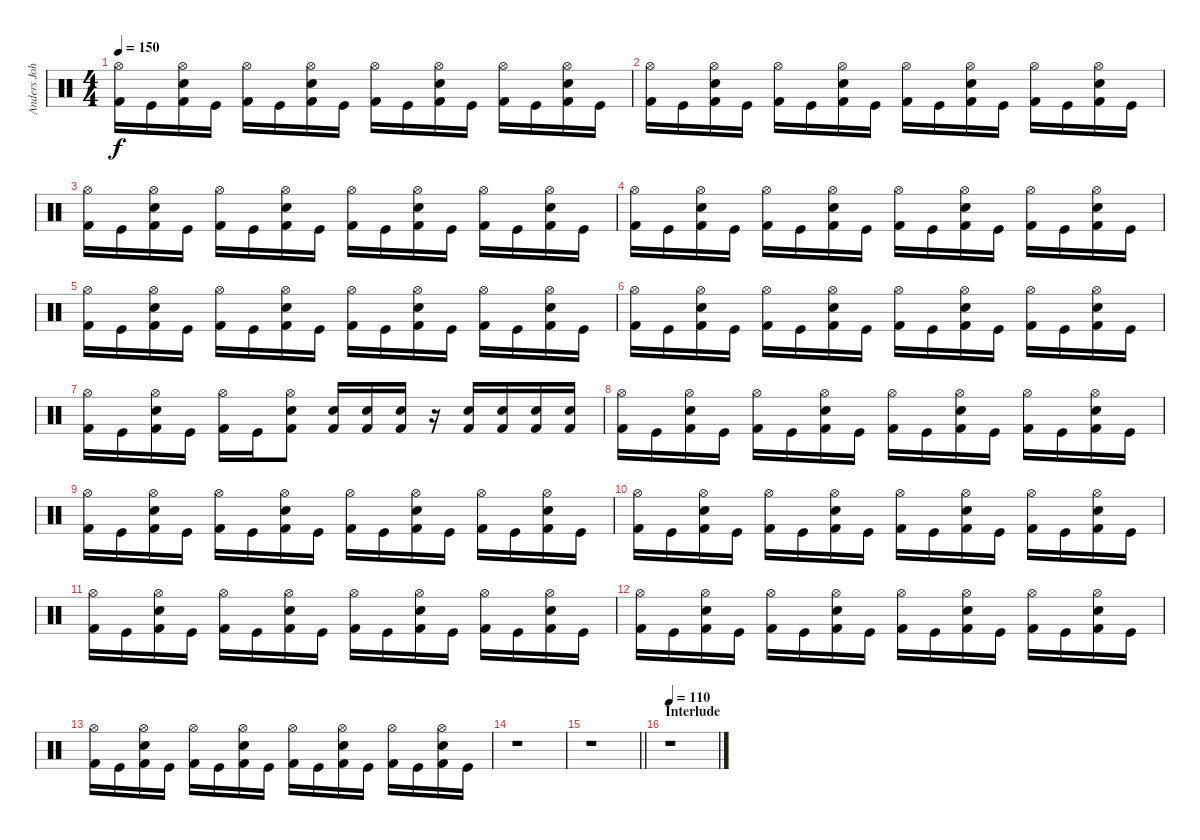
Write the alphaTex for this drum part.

\track ("Anders Johansson" "Anders Joh") {instrument percussion}
\staff {score}
\articulation defaults
\ts (4 4)
\tempo 150
\clef neutral
\ks c
("Hi-Hat (open)" "Kick (hit) 2").16{dy f} "Kick (hit)".16 ("Hi-Hat (open)" "Electric Snare (hit)" "Kick (hit) 2").16 "Kick (hit)".16 ("Hi-Hat (open)" "Kick (hit) 2").16 "Kick (hit)".16 ("Hi-Hat (open)" "Electric Snare (hit)" "Kick (hit) 2").16 "Kick (hit)".16 ("Hi-Hat (open)" "Kick (hit) 2").16 "Kick (hit)".16 ("Hi-Hat (open)" "Electric Snare (hit)" "Kick (hit) 2").16 "Kick (hit)".16 ("Hi-Hat (open)" "Kick (hit) 2").16 "Kick (hit)".16 ("Hi-Hat (open)" "Electric Snare (hit)" "Kick (hit) 2").16 "Kick (hit)".16 |
("Hi-Hat (open)" "Kick (hit) 2").16 "Kick (hit)".16 ("Hi-Hat (open)" "Electric Snare (hit)" "Kick (hit) 2").16 "Kick (hit)".16 ("Hi-Hat (open)" "Kick (hit) 2").16 "Kick (hit)".16 ("Hi-Hat (open)" "Electric Snare (hit)" "Kick (hit) 2").16 "Kick (hit)".16 ("Hi-Hat (open)" "Kick (hit) 2").16 "Kick (hit)".16 ("Hi-Hat (open)" "Electric Snare (hit)" "Kick (hit) 2").16 "Kick (hit)".16 ("Hi-Hat (open)" "Kick (hit) 2").16 "Kick (hit)".16 ("Hi-Hat (open)" "Electric Snare (hit)" "Kick (hit) 2").16 "Kick (hit)".16 |
("Hi-Hat (open)" "Kick (hit) 2").16 "Kick (hit)".16 ("Hi-Hat (open)" "Electric Snare (hit)" "Kick (hit) 2").16 "Kick (hit)".16 ("Hi-Hat (open)" "Kick (hit) 2").16 "Kick (hit)".16 ("Hi-Hat (open)" "Electric Snare (hit)" "Kick (hit) 2").16 "Kick (hit)".16 ("Hi-Hat (open)" "Kick (hit) 2").16 "Kick (hit)".16 ("Hi-Hat (open)" "Electric Snare (hit)" "Kick (hit) 2").16 "Kick (hit)".16 ("Hi-Hat (open)" "Kick (hit) 2").16 "Kick (hit)".16 ("Hi-Hat (open)" "Electric Snare (hit)" "Kick (hit) 2").16 "Kick (hit)".16 |
("Hi-Hat (open)" "Kick (hit) 2").16 "Kick (hit)".16 ("Hi-Hat (open)" "Electric Snare (hit)" "Kick (hit) 2").16 "Kick (hit)".16 ("Hi-Hat (open)" "Kick (hit) 2").16 "Kick (hit)".16 ("Hi-Hat (open)" "Electric Snare (hit)" "Kick (hit) 2").16 "Kick (hit)".16 ("Hi-Hat (open)" "Kick (hit) 2").16 "Kick (hit)".16 ("Hi-Hat (open)" "Electric Snare (hit)" "Kick (hit) 2").16 "Kick (hit)".16 ("Hi-Hat (open)" "Kick (hit) 2").16 "Kick (hit)".16 ("Hi-Hat (open)" "Electric Snare (hit)" "Kick (hit) 2").16 "Kick (hit)".16 |
("Hi-Hat (open)" "Kick (hit) 2").16 "Kick (hit)".16 ("Hi-Hat (open)" "Electric Snare (hit)" "Kick (hit) 2").16 "Kick (hit)".16 ("Hi-Hat (open)" "Kick (hit) 2").16 "Kick (hit)".16 ("Hi-Hat (open)" "Electric Snare (hit)" "Kick (hit) 2").16 "Kick (hit)".16 ("Hi-Hat (open)" "Kick (hit) 2").16 "Kick (hit)".16 ("Hi-Hat (open)" "Electric Snare (hit)" "Kick (hit) 2").16 "Kick (hit)".16 ("Hi-Hat (open)" "Kick (hit) 2").16 "Kick (hit)".16 ("Hi-Hat (open)" "Electric Snare (hit)" "Kick (hit) 2").16 "Kick (hit)".16 |
("Hi-Hat (open)" "Kick (hit) 2").16 "Kick (hit)".16 ("Hi-Hat (open)" "Electric Snare (hit)" "Kick (hit) 2").16 "Kick (hit)".16 ("Hi-Hat (open)" "Kick (hit) 2").16 "Kick (hit)".16 ("Hi-Hat (open)" "Electric Snare (hit)" "Kick (hit) 2").16 "Kick (hit)".16 ("Hi-Hat (open)" "Kick (hit) 2").16 "Kick (hit)".16 ("Hi-Hat (open)" "Electric Snare (hit)" "Kick (hit) 2").16 "Kick (hit)".16 ("Hi-Hat (open)" "Kick (hit) 2").16 "Kick (hit)".16 ("Hi-Hat (open)" "Electric Snare (hit)" "Kick (hit) 2").16 "Kick (hit)".16 |
("Hi-Hat (open)" "Kick (hit) 2").16 "Kick (hit)".16 ("Hi-Hat (open)" "Electric Snare (hit)" "Kick (hit) 2").16 "Kick (hit)".16 ("Hi-Hat (open)" "Kick (hit) 2").16 "Kick (hit)".16 ("Hi-Hat (open)" "Electric Snare (hit)" "Kick (hit) 2").8 ("Electric Snare (hit)" "Kick (hit) 2").16 ("Electric Snare (hit)" "Kick (hit) 2").16 ("Electric Snare (hit)" "Kick (hit) 2").16 r.16 ("Electric Snare (hit)" "Kick (hit) 2").16 ("Electric Snare (hit)" "Kick (hit) 2").16 ("Electric Snare (hit)" "Kick (hit) 2").16 ("Electric Snare (hit)" "Kick (hit) 2").16 |
("Hi-Hat (open)" "Kick (hit) 2").16 "Kick (hit)".16 ("Hi-Hat (open)" "Electric Snare (hit)" "Kick (hit) 2").16 "Kick (hit)".16 ("Hi-Hat (open)" "Kick (hit) 2").16 "Kick (hit)".16 ("Hi-Hat (open)" "Electric Snare (hit)" "Kick (hit) 2").16 "Kick (hit)".16 ("Hi-Hat (open)" "Kick (hit) 2").16 "Kick (hit)".16 ("Hi-Hat (open)" "Electric Snare (hit)" "Kick (hit) 2").16 "Kick (hit)".16 ("Hi-Hat (open)" "Kick (hit) 2").16 "Kick (hit)".16 ("Hi-Hat (open)" "Electric Snare (hit)" "Kick (hit) 2").16 "Kick (hit)".16 |
("Hi-Hat (open)" "Kick (hit) 2").16 "Kick (hit)".16 ("Hi-Hat (open)" "Electric Snare (hit)" "Kick (hit) 2").16 "Kick (hit)".16 ("Hi-Hat (open)" "Kick (hit) 2").16 "Kick (hit)".16 ("Hi-Hat (open)" "Electric Snare (hit)" "Kick (hit) 2").16 "Kick (hit)".16 ("Hi-Hat (open)" "Kick (hit) 2").16 "Kick (hit)".16 ("Hi-Hat (open)" "Electric Snare (hit)" "Kick (hit) 2").16 "Kick (hit)".16 ("Hi-Hat (open)" "Kick (hit) 2").16 "Kick (hit)".16 ("Hi-Hat (open)" "Electric Snare (hit)" "Kick (hit) 2").16 "Kick (hit)".16 |
("Hi-Hat (open)" "Kick (hit) 2").16 "Kick (hit)".16 ("Hi-Hat (open)" "Electric Snare (hit)" "Kick (hit) 2").16 "Kick (hit)".16 ("Hi-Hat (open)" "Kick (hit) 2").16 "Kick (hit)".16 ("Hi-Hat (open)" "Electric Snare (hit)" "Kick (hit) 2").16 "Kick (hit)".16 ("Hi-Hat (open)" "Kick (hit) 2").16 "Kick (hit)".16 ("Hi-Hat (open)" "Electric Snare (hit)" "Kick (hit) 2").16 "Kick (hit)".16 ("Hi-Hat (open)" "Kick (hit) 2").16 "Kick (hit)".16 ("Hi-Hat (open)" "Electric Snare (hit)" "Kick (hit) 2").16 "Kick (hit)".16 |
("Hi-Hat (open)" "Kick (hit) 2").16 "Kick (hit)".16 ("Hi-Hat (open)" "Electric Snare (hit)" "Kick (hit) 2").16 "Kick (hit)".16 ("Hi-Hat (open)" "Kick (hit) 2").16 "Kick (hit)".16 ("Hi-Hat (open)" "Electric Snare (hit)" "Kick (hit) 2").16 "Kick (hit)".16 ("Hi-Hat (open)" "Kick (hit) 2").16 "Kick (hit)".16 ("Hi-Hat (open)" "Electric Snare (hit)" "Kick (hit) 2").16 "Kick (hit)".16 ("Hi-Hat (open)" "Kick (hit) 2").16 "Kick (hit)".16 ("Hi-Hat (open)" "Electric Snare (hit)" "Kick (hit) 2").16 "Kick (hit)".16 |
("Hi-Hat (open)" "Kick (hit) 2").16 "Kick (hit)".16 ("Hi-Hat (open)" "Electric Snare (hit)" "Kick (hit) 2").16 "Kick (hit)".16 ("Hi-Hat (open)" "Kick (hit) 2").16 "Kick (hit)".16 ("Hi-Hat (open)" "Electric Snare (hit)" "Kick (hit) 2").16 "Kick (hit)".16 ("Hi-Hat (open)" "Kick (hit) 2").16 "Kick (hit)".16 ("Hi-Hat (open)" "Electric Snare (hit)" "Kick (hit) 2").16 "Kick (hit)".16 ("Hi-Hat (open)" "Kick (hit) 2").16 "Kick (hit)".16 ("Hi-Hat (open)" "Electric Snare (hit)" "Kick (hit) 2").16 "Kick (hit)".16 |
("Hi-Hat (open)" "Kick (hit) 2").16 "Kick (hit)".16 ("Hi-Hat (open)" "Electric Snare (hit)" "Kick (hit) 2").16 "Kick (hit)".16 ("Hi-Hat (open)" "Kick (hit) 2").16 "Kick (hit)".16 ("Hi-Hat (open)" "Electric Snare (hit)" "Kick (hit) 2").16 "Kick (hit)".16 ("Hi-Hat (open)" "Kick (hit) 2").16 "Kick (hit)".16 ("Hi-Hat (open)" "Electric Snare (hit)" "Kick (hit) 2").16 "Kick (hit)".16 ("Hi-Hat (open)" "Kick (hit) 2").16 "Kick (hit)".16 ("Hi-Hat (open)" "Electric Snare (hit)" "Kick (hit) 2").16 "Kick (hit)".16 |
r.1 |
\barLineRight lightlight
r.1 |
\section ("" "Interlude")
\tempo 110
r.1
